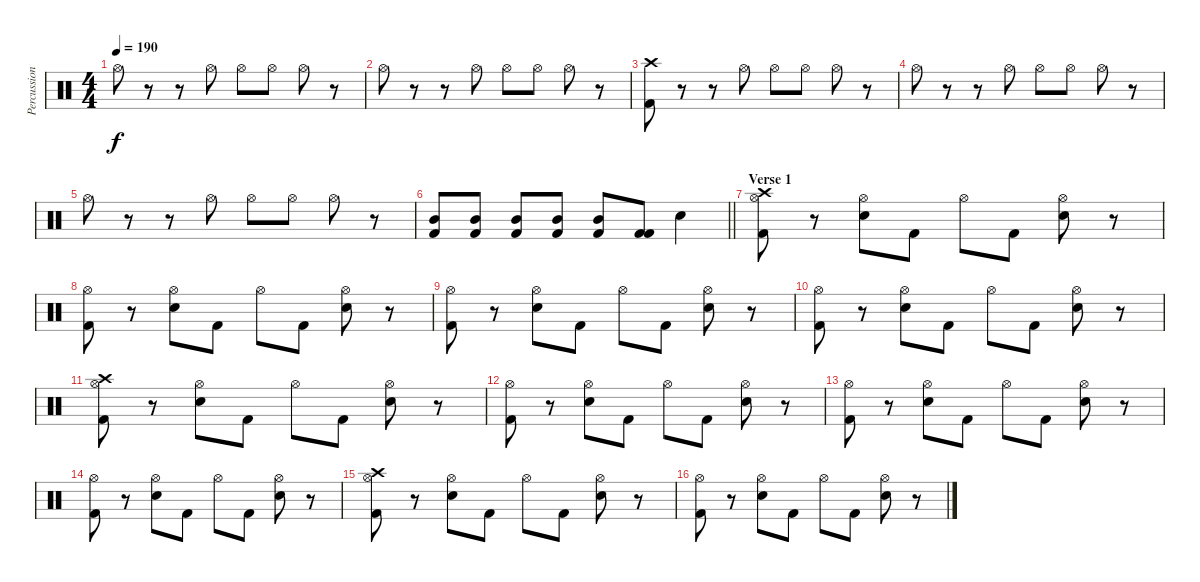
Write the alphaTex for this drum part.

\track ("Percussion" "Percussion") {instrument percussion}
\staff {score}
\articulation defaults
\ts (4 4)
\tempo 190
\clef neutral
\ks c "Hi-Hat (open)".8{dy f}
r.8 r.8 "Hi-Hat (open)".8 "Hi-Hat (open)".8 "Hi-Hat (open)".8 "Hi-Hat (open)".8 r.8 |
"Hi-Hat (open)".8 r.8 r.8 "Hi-Hat (open)".8 "Hi-Hat (open)".8 "Hi-Hat (open)".8 "Hi-Hat (open)".8 r.8 |
("Crash high (hit)" "Kick (hit) 2").8 r.8 r.8 "Hi-Hat (open)".8 "Hi-Hat (open)".8 "Hi-Hat (open)".8 "Hi-Hat (open)".8 r.8 |
"Hi-Hat (open)".8 r.8 r.8 "Hi-Hat (open)".8 "Hi-Hat (open)".8 "Hi-Hat (open)".8 "Hi-Hat (open)".8 r.8 |
"Hi-Hat (open)".8 r.8 r.8 "Hi-Hat (open)".8 "Hi-Hat (open)".8 "Hi-Hat (open)".8 "Hi-Hat (open)".8 r.8 |
\barLineRight lightlight
("Kick (hit) 2" "Mid Tom (hit)").8 ("Kick (hit) 2" "Mid Tom (hit)").8 ("Kick (hit) 2" "Mid Tom (hit)").8 ("Kick (hit) 2" "Mid Tom (hit)").8 ("Kick (hit) 2" "Mid Tom (hit)").8 ("Kick (hit) 2" "Kick (hit) 2").8 "Snare (hit) 2".4 |
\section ("" "Verse 1")
("Hi-Hat (open)" "Crash high (hit)" "Kick (hit) 2").8 r.8 ("Hi-Hat (open)" "Snare (hit) 2").8 "Kick (hit) 2".8 "Hi-Hat (open)".8 "Kick (hit) 2".8 ("Hi-Hat (open)" "Snare (hit) 2").8 r.8 |
("Hi-Hat (open)" "Kick (hit) 2").8 r.8 ("Hi-Hat (open)" "Snare (hit) 2").8 "Kick (hit) 2".8 "Hi-Hat (open)".8 "Kick (hit) 2".8 ("Hi-Hat (open)" "Snare (hit) 2").8 r.8 |
("Hi-Hat (open)" "Kick (hit) 2").8 r.8 ("Hi-Hat (open)" "Snare (hit) 2").8 "Kick (hit) 2".8 "Hi-Hat (open)".8 "Kick (hit) 2".8 ("Hi-Hat (open)" "Snare (hit) 2").8 r.8 |
("Hi-Hat (open)" "Kick (hit) 2").8 r.8 ("Hi-Hat (open)" "Snare (hit) 2").8 "Kick (hit) 2".8 "Hi-Hat (open)".8 "Kick (hit) 2".8 ("Hi-Hat (open)" "Snare (hit) 2").8 r.8 |
("Hi-Hat (open)" "Crash high (hit)" "Kick (hit) 2").8 r.8 ("Hi-Hat (open)" "Snare (hit) 2").8 "Kick (hit) 2".8 "Hi-Hat (open)".8 "Kick (hit) 2".8 ("Hi-Hat (open)" "Snare (hit) 2").8 r.8 |
("Hi-Hat (open)" "Kick (hit) 2").8 r.8 ("Hi-Hat (open)" "Snare (hit) 2").8 "Kick (hit) 2".8 "Hi-Hat (open)".8 "Kick (hit) 2".8 ("Hi-Hat (open)" "Snare (hit) 2").8 r.8 |
("Hi-Hat (open)" "Kick (hit) 2").8 r.8 ("Hi-Hat (open)" "Snare (hit) 2").8 "Kick (hit) 2".8 "Hi-Hat (open)".8 "Kick (hit) 2".8 ("Hi-Hat (open)" "Snare (hit) 2").8 r.8 |
("Hi-Hat (open)" "Kick (hit) 2").8 r.8 ("Hi-Hat (open)" "Snare (hit) 2").8 "Kick (hit) 2".8 "Hi-Hat (open)".8 "Kick (hit) 2".8 ("Hi-Hat (open)" "Snare (hit) 2").8 r.8 |
("Hi-Hat (open)" "Crash high (hit)" "Kick (hit) 2").8 r.8 ("Hi-Hat (open)" "Snare (hit) 2").8 "Kick (hit) 2".8 "Hi-Hat (open)".8 "Kick (hit) 2".8 ("Hi-Hat (open)" "Snare (hit) 2").8 r.8 |
("Hi-Hat (open)" "Kick (hit) 2").8 r.8 ("Hi-Hat (open)" "Snare (hit) 2").8 "Kick (hit) 2".8 "Hi-Hat (open)".8 "Kick (hit) 2".8 ("Hi-Hat (open)" "Snare (hit) 2").8 r.8
